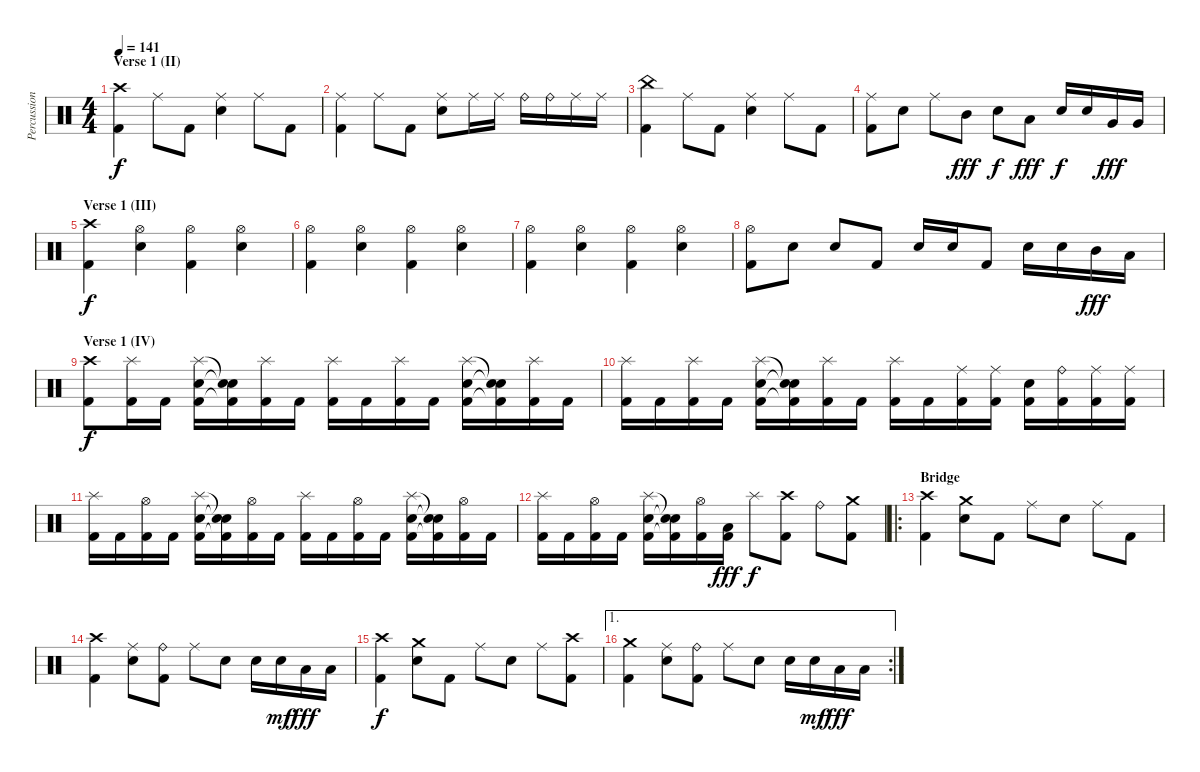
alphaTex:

\track ("Percussion" "Percussion") {instrument percussion}
\staff {score}
\articulation defaults
\ts (4 4)
\section ("" "Verse 1 (II)")
\tempo 141
\clef neutral
\ks c
("Crash high (hit)" "Kick (hit) 2").4{dy f} "Ride (middle)".8 "Kick (hit) 2".8 ("Ride (middle)" "Snare (hit) 2").4 "Ride (middle)".8 "Kick (hit) 2".8 |
("Ride (middle)" "Kick (hit) 2").4 "Ride (middle)".8 "Kick (hit) 2".8 ("Ride (middle)" "Snare (hit) 2").8 "Ride (middle)".16 "Ride (middle)".16 "Ride (bell)".16 "Ride (bell)".16 "Ride (middle)".16 "Ride (middle)".16 |
("China (hit)" "Kick (hit) 2").4 "Ride (middle)".8 "Kick (hit) 2".8 ("Ride (middle)" "Snare (hit) 2").4 "Ride (middle)".8 "Kick (hit) 2".8 |
("Ride (middle)" "Kick (hit) 2").8 "Snare (hit) 2".8 "Ride (middle)".8 "Mid Tom (hit)".8{dy fff} "Snare (hit) 2".8{dy f} "Low Tom (hit)".8{dy fff} "Snare (hit) 2".16{dy f} "Snare (hit) 2".16 "Very Low Tom (hit)".16{dy fff} "Very Low Tom (hit)".16 |
\section ("" "Verse 1 (III)")
("Crash high (hit)" "Kick (hit) 2").4{dy f} ("Hi-Hat (open)" "Snare (hit) 2").4 ("Hi-Hat (open)" "Kick (hit) 2").4 ("Hi-Hat (open)" "Snare (hit) 2").4 |
("Hi-Hat (open)" "Kick (hit) 2").4 ("Hi-Hat (open)" "Snare (hit) 2").4 ("Hi-Hat (open)" "Kick (hit) 2").4 ("Hi-Hat (open)" "Snare (hit) 2").4 |
("Hi-Hat (open)" "Kick (hit) 2").4 ("Hi-Hat (open)" "Snare (hit) 2").4 ("Hi-Hat (open)" "Kick (hit) 2").4 ("Hi-Hat (open)" "Snare (hit) 2").4 |
("Hi-Hat (open)" "Kick (hit) 2").8 "Snare (hit) 2".8 "Snare (hit) 2".8 "Kick (hit) 2".8 "Snare (hit) 2".16 "Snare (hit) 2".16 "Kick (hit) 2".8 "Snare (hit) 2".16 "Snare (hit) 2".16 "Mid Tom (hit)".16{dy fff} "Low Tom (hit)".16 |
\section ("" "Verse 1 (IV)")
("Crash high (hit)" "Kick (hit) 2").8{dy f} ("Splash (hit)" "Kick (hit) 2").16 "Kick (hit) 2".16 ("Splash (hit)" "Snare (hit) 2" "Kick (hit) 2").16 ("Snare (hit)"{t} "Snare (hit)"{t} "Kick (hit) 2"{t}).16 ("Splash (hit)" "Kick (hit) 2").16 "Kick (hit) 2".16 ("Splash (hit)" "Kick (hit) 2").16 "Kick (hit) 2".16 ("Splash (hit)" "Kick (hit) 2").16 "Kick (hit) 2".16 ("Splash (hit)" "Snare (hit) 2" "Kick (hit) 2").16 ("Snare (hit)"{t} "Snare (hit)"{t} "Kick (hit) 2"{t}).16 ("Splash (hit)" "Kick (hit) 2").16 "Kick (hit) 2".16 |
("Splash (hit)" "Kick (hit) 2").16 "Kick (hit) 2".16 ("Splash (hit)" "Kick (hit) 2").16 "Kick (hit) 2".16 ("Splash (hit)" "Snare (hit) 2" "Kick (hit) 2").16 ("Snare (hit)"{t} "Snare (hit)"{t} "Kick (hit) 2"{t}).16 ("Splash (hit)" "Kick (hit) 2").16 "Kick (hit) 2".16 ("Splash (hit)" "Kick (hit) 2").16 "Kick (hit) 2".16 ("Ride (middle)" "Kick (hit) 2").16 ("Ride (middle)" "Kick (hit) 2").16 ("Snare (hit) 2" "Kick (hit) 2").16 ("Ride (bell)" "Kick (hit) 2").16 ("Ride (middle)" "Kick (hit) 2").16 ("Ride (middle)" "Kick (hit) 2").16 |
("Splash (hit)" "Kick (hit) 2").16 "Kick (hit) 2".16 ("Hi-Hat (open)" "Kick (hit) 2").16 "Kick (hit) 2".16 ("Splash (hit)" "Snare (hit) 2" "Kick (hit) 2").16 ("Snare (hit)"{t} "Snare (hit)"{t} "Kick (hit) 2"{t}).16 ("Hi-Hat (open)" "Kick (hit) 2").16 "Kick (hit) 2".16 ("Splash (hit)" "Kick (hit) 2").16 "Kick (hit) 2".16 ("Hi-Hat (open)" "Kick (hit) 2").16 "Kick (hit) 2".16 ("Splash (hit)" "Snare (hit) 2" "Kick (hit) 2").16 ("Snare (hit)"{t} "Snare (hit)"{t} "Kick (hit) 2"{t}).16 ("Hi-Hat (open)" "Kick (hit) 2").16 "Kick (hit) 2".16 |
("Splash (hit)" "Kick (hit) 2").16 "Kick (hit) 2".16 ("Hi-Hat (open)" "Kick (hit) 2").16 "Kick (hit) 2".16 ("Splash (hit)" "Snare (hit) 2" "Kick (hit) 2").16 ("Snare (hit)"{t} "Snare (hit)"{t} "Kick (hit) 2"{t}).16 ("Hi-Hat (open)" "Kick (hit) 2").16 ("Low Tom (hit)" "Kick (hit) 2").16{dy fff} "Splash (hit)".8{dy f} ("Crash high (hit)" "Kick (hit) 2").8 "Ride (bell)".8 ("Crash medium (hit)" "Kick (hit) 2").8 |
\ro
\section ("" "Bridge")
("Crash high (hit)" "Kick (hit) 2").4 ("Crash medium (hit)" "Snare (hit) 2").8 "Kick (hit) 2".8 "Ride (middle)".8 "Snare (hit) 2".8 "Ride (middle)".8 "Kick (hit) 2".8 |
("Crash high (hit)" "Kick (hit) 2").4 ("Ride (middle)" "Snare (hit) 2").8 ("Ride (bell)" "Kick (hit) 2").8 "Ride (middle)".8 "Snare (hit) 2".8 "Snare (hit) 2".16 "Snare (hit) 2".16{dy mf} "Low Tom (hit)".16{dy fff} "Low Tom (hit)".16 |
("Crash high (hit)" "Kick (hit) 2").4{dy f} ("Crash medium (hit)" "Snare (hit) 2").8 "Kick (hit) 2".8 "Ride (middle)".8 "Snare (hit) 2".8 "Ride (middle)".8 ("Crash high (hit)" "Kick (hit) 2").8 |
\ae 1
\rc 2
("Crash medium (hit)" "Kick (hit) 2").4 ("Ride (middle)" "Snare (hit) 2").8 ("Ride (bell)" "Kick (hit) 2").8 "Ride (middle)".8 "Snare (hit) 2".8 "Snare (hit) 2".16 "Snare (hit) 2".16{dy mf} "Low Tom (hit)".16{dy fff} "Low Tom (hit)".16
